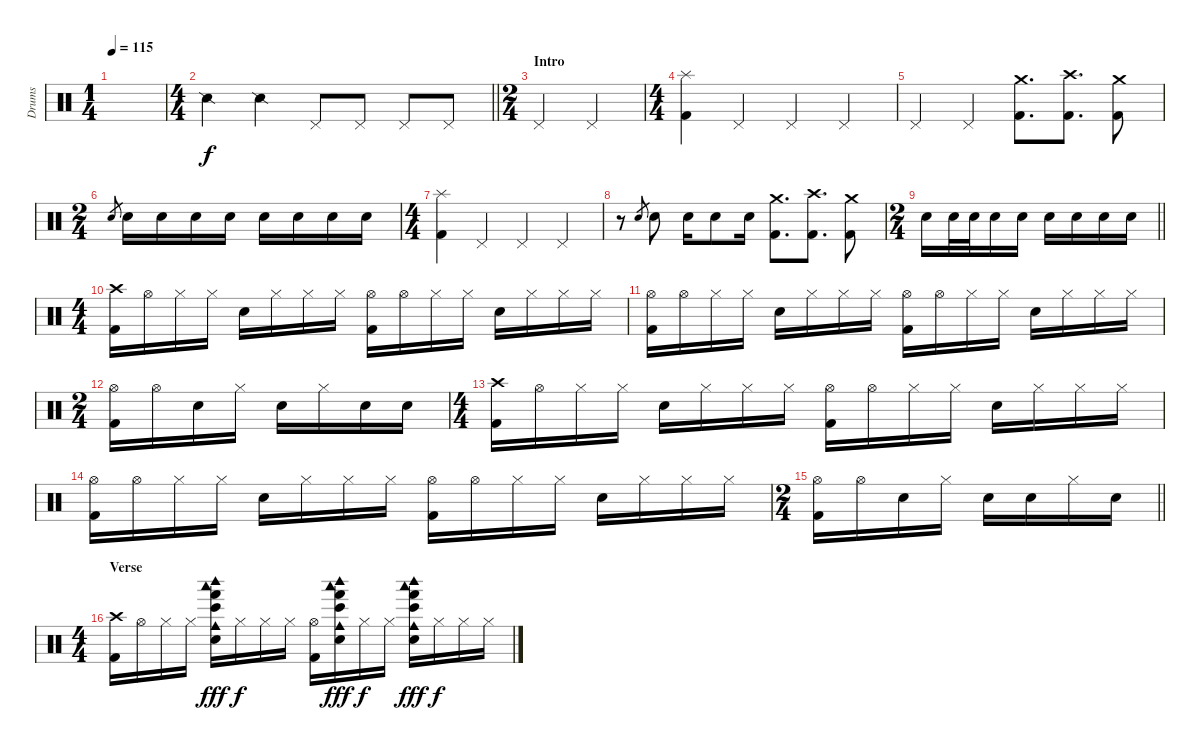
\track ("Drums" "Drums") {instrument percussion}
\staff {score}
\articulation defaults
\ts (1 4)
\tempo 115
\clef neutral
\ks c
|
\ts (4 4)
\barLineRight lightlight "Snare (side stick) 2".4 "Snare (side stick) 2".4 "Pedal Hi-Hat (hit)".8 "Pedal Hi-Hat (hit)".8 "Pedal Hi-Hat (hit)".8 "Pedal Hi-Hat (hit)".8
|
\ts (2 4)
\section ("" "Intro")
"Pedal Hi-Hat (hit)".4 "Pedal Hi-Hat (hit)".4 |
\ts (4 4)
("Splash (hit)" "Kick (hit) 2").4 "Pedal Hi-Hat (hit)".4 "Pedal Hi-Hat (hit)".4 "Pedal Hi-Hat (hit)".4 |
"Pedal Hi-Hat (hit)".4 "Pedal Hi-Hat (hit)".4 ("Crash medium (hit)" "Kick (hit) 2").8{d} ("Crash high (hit)" "Kick (hit) 2").8{d} ("Crash medium (hit)" "Kick (hit) 2").8 |
\ts (2 4)
"Electric Snare (hit)".8{gr} "Electric Snare (hit)".16 "Electric Snare (hit)".16 "Electric Snare (hit)".16 "Electric Snare (hit)".16 "Electric Snare (hit)".16 "Electric Snare (hit)".16 "Electric Snare (hit)".16 "Electric Snare (hit)".16 |
\ts (4 4)
("Splash (hit)" "Kick (hit) 2").4 "Pedal Hi-Hat (hit)".4 "Pedal Hi-Hat (hit)".4 "Pedal Hi-Hat (hit)".4 |
r.8 "Electric Snare (hit)".8{gr} "Electric Snare (hit)".8 "Electric Snare (hit)".16 "Electric Snare (hit)".8 "Electric Snare (hit)".16 ("Crash medium (hit)" "Kick (hit) 2").8{d} ("Crash high (hit)" "Kick (hit) 2").8{d} ("Crash medium (hit)" "Kick (hit) 2").8 |
\ts (2 4)
\barLineRight lightlight "Electric Snare (hit)".16 "Electric Snare (hit)".32 "Electric Snare (hit)".32 "Electric Snare (hit)".16 "Electric Snare (hit)".16 "Electric Snare (hit)".16 "Electric Snare (hit)".16 "Electric Snare (hit)".16 "Electric Snare (hit)".16
|
\ts (4 4)
("Crash high (hit)" "Kick (hit) 2").16 "Hi-Hat (open)".16 "Hi-Hat (closed)".16 "Hi-Hat (closed)".16 "Electric Snare (hit)".16 "Hi-Hat (closed)".16 "Hi-Hat (closed)".16 "Hi-Hat (closed)".16 ("Hi-Hat (open)" "Kick (hit) 2").16 "Hi-Hat (open)".16 "Hi-Hat (closed)".16 "Hi-Hat (closed)".16 "Electric Snare (hit)".16 "Hi-Hat (closed)".16 "Hi-Hat (closed)".16 "Hi-Hat (closed)".16 |
("Hi-Hat (open)" "Kick (hit) 2").16 "Hi-Hat (open)".16 "Hi-Hat (closed)".16 "Hi-Hat (closed)".16 "Electric Snare (hit)".16 "Hi-Hat (closed)".16 "Hi-Hat (closed)".16 "Hi-Hat (closed)".16 ("Hi-Hat (open)" "Kick (hit) 2").16 "Hi-Hat (open)".16 "Hi-Hat (closed)".16 "Hi-Hat (closed)".16 "Electric Snare (hit)".16 "Hi-Hat (closed)".16 "Hi-Hat (closed)".16 "Hi-Hat (closed)".16 |
\ts (2 4)
("Hi-Hat (open)" "Kick (hit) 2").16 "Hi-Hat (open)".16 "Electric Snare (hit)".16 "Hi-Hat (closed)".16 "Electric Snare (hit)".16 "Hi-Hat (closed)".16 "Electric Snare (hit)".16 "Electric Snare (hit)".16 |
\ts (4 4)
("Crash high (hit)" "Kick (hit) 2").16 "Hi-Hat (open)".16 "Hi-Hat (closed)".16 "Hi-Hat (closed)".16 "Electric Snare (hit)".16 "Hi-Hat (closed)".16 "Hi-Hat (closed)".16 "Hi-Hat (closed)".16 ("Hi-Hat (open)" "Kick (hit) 2").16 "Hi-Hat (open)".16 "Hi-Hat (closed)".16 "Hi-Hat (closed)".16 "Electric Snare (hit)".16 "Hi-Hat (closed)".16 "Hi-Hat (closed)".16 "Hi-Hat (closed)".16 |
("Hi-Hat (open)" "Kick (hit) 2").16 "Hi-Hat (open)".16 "Hi-Hat (closed)".16 "Hi-Hat (closed)".16 "Electric Snare (hit)".16 "Hi-Hat (closed)".16 "Hi-Hat (closed)".16 "Hi-Hat (closed)".16 ("Hi-Hat (open)" "Kick (hit) 2").16 "Hi-Hat (open)".16 "Hi-Hat (closed)".16 "Hi-Hat (closed)".16 "Electric Snare (hit)".16 "Hi-Hat (closed)".16 "Hi-Hat (closed)".16 "Hi-Hat (closed)".16 |
\ts (2 4)
\barLineRight lightlight
("Hi-Hat (open)" "Kick (hit) 2").16 "Hi-Hat (open)".16 "Electric Snare (hit)".16 "Hi-Hat (closed)".16 "Electric Snare (hit)".16 "Electric Snare (hit)".16 "Hi-Hat (closed)".16 "Electric Snare (hit)".16 |
\ts (4 4)
\section ("" "Verse")
("Crash high (hit)" "Kick (hit) 2").16 "Hi-Hat (open)".16 "Hi-Hat (closed)".16 "Hi-Hat (closed)".16 ("Woodblock low (hit)" "Woodblock high (hit)" "Cowbell medium (hit)" "Electric Snare (hit)" "Hand (hit)" "Bongo High (hit)").16{dy fff} "Hi-Hat (closed)".16{dy f} "Hi-Hat (closed)".16 "Hi-Hat (closed)".16 ("Hi-Hat (open)" "Kick (hit) 2").16 ("Woodblock low (hit)" "Woodblock high (hit)" "Cowbell medium (hit)" "Electric Snare (hit)" "Hand (hit)" "Bongo High (hit)").16{dy fff} "Hi-Hat (closed)".16{dy f} "Hi-Hat (closed)".16 ("Woodblock low (hit)" "Woodblock high (hit)" "Cowbell medium (hit)" "Electric Snare (hit)" "Hand (hit)" "Bongo High (hit)").16{dy fff} "Hi-Hat (closed)".16{dy f} "Hi-Hat (closed)".16 "Hi-Hat (closed)".16
